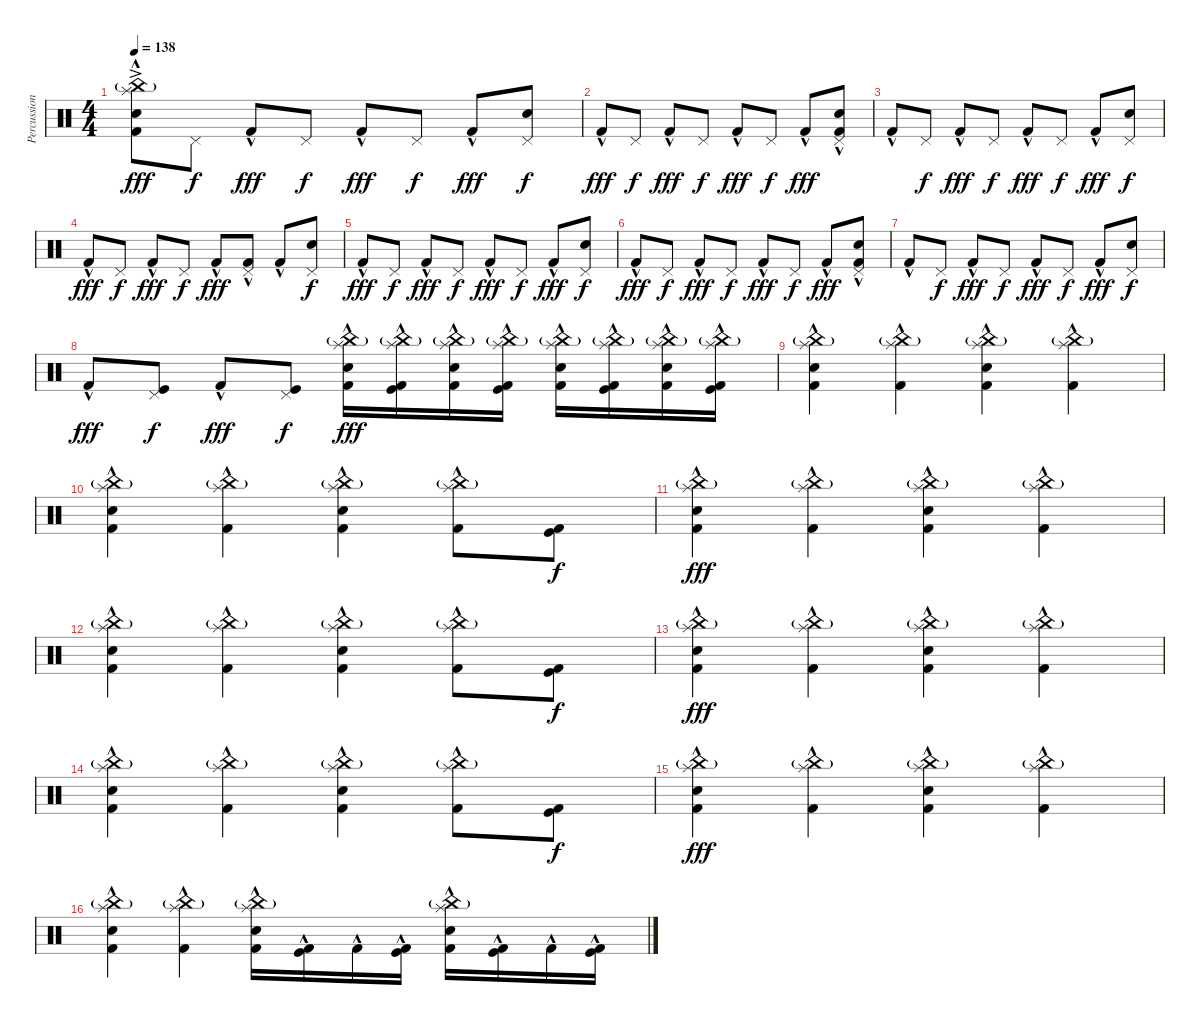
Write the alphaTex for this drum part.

\track ("Percussions" "Percussion") {instrument percussion}
\staff {score}
\articulation defaults
\ts (4 4)
\tempo 138
\clef neutral
\ks c
("Splash (hit)"{ac} "China (hit)"{g} "Snare (hit) 2" "Kick (hit) 2"{hac}).8{dy fff} "Pedal Hi-Hat (hit)".8{dy f} "Kick (hit) 2"{hac}.8{dy fff} "Pedal Hi-Hat (hit)".8{dy f} "Kick (hit) 2"{hac}.8{dy fff} "Pedal Hi-Hat (hit)".8{dy f} "Kick (hit) 2"{hac}.8{dy fff} ("Snare (hit) 2" "Pedal Hi-Hat (hit)").8{dy f} |
"Kick (hit) 2"{hac}.8{dy fff} "Pedal Hi-Hat (hit)".8{dy f} "Kick (hit) 2"{hac}.8{dy fff} "Pedal Hi-Hat (hit)".8{dy f} "Kick (hit) 2"{hac}.8{dy fff} "Pedal Hi-Hat (hit)".8{dy f} "Kick (hit) 2"{hac}.8{dy fff} ("Snare (hit) 2" "Pedal Hi-Hat (hit)" "Kick (hit) 2"{hac}).8 |
"Kick (hit) 2"{hac}.8 "Pedal Hi-Hat (hit)".8{dy f} "Kick (hit) 2"{hac}.8{dy fff} "Pedal Hi-Hat (hit)".8{dy f} "Kick (hit) 2"{hac}.8{dy fff} "Pedal Hi-Hat (hit)".8{dy f} "Kick (hit) 2"{hac}.8{dy fff} ("Snare (hit) 2" "Pedal Hi-Hat (hit)").8{dy f} |
"Kick (hit) 2"{hac}.8{dy fff} "Pedal Hi-Hat (hit)".8{dy f} "Kick (hit) 2"{hac}.8{dy fff} "Pedal Hi-Hat (hit)".8{dy f} "Kick (hit) 2"{hac}.8{dy fff} ("Pedal Hi-Hat (hit)" "Kick (hit) 2"{hac}).8 "Kick (hit) 2"{hac}.8 ("Snare (hit) 2" "Pedal Hi-Hat (hit)").8{dy f} |
"Kick (hit) 2"{hac}.8{dy fff} "Pedal Hi-Hat (hit)".8{dy f} "Kick (hit) 2"{hac}.8{dy fff} "Pedal Hi-Hat (hit)".8{dy f} "Kick (hit) 2"{hac}.8{dy fff} "Pedal Hi-Hat (hit)".8{dy f} "Kick (hit) 2"{hac}.8{dy fff} ("Snare (hit) 2" "Pedal Hi-Hat (hit)").8{dy f} |
"Kick (hit) 2"{hac}.8{dy fff} "Pedal Hi-Hat (hit)".8{dy f} "Kick (hit) 2"{hac}.8{dy fff} "Pedal Hi-Hat (hit)".8{dy f} "Kick (hit) 2"{hac}.8{dy fff} "Pedal Hi-Hat (hit)".8{dy f} "Kick (hit) 2"{hac}.8{dy fff} ("Snare (hit) 2" "Pedal Hi-Hat (hit)" "Kick (hit) 2"{hac}).8 |
"Kick (hit) 2"{hac}.8 "Pedal Hi-Hat (hit)".8{dy f} "Kick (hit) 2"{hac}.8{dy fff} "Pedal Hi-Hat (hit)".8{dy f} "Kick (hit) 2"{hac}.8{dy fff} "Pedal Hi-Hat (hit)".8{dy f} "Kick (hit) 2"{hac}.8{dy fff} ("Snare (hit) 2" "Pedal Hi-Hat (hit)").8{dy f} |
"Kick (hit) 2"{hac}.8{dy fff} ("Pedal Hi-Hat (hit)" "Kick (hit)").8{dy f} "Kick (hit) 2"{hac}.8{dy fff} ("Pedal Hi-Hat (hit)" "Kick (hit)").8{dy f} ("Splash (hit)" "China (hit)"{g} "Snare (hit) 2" "Kick (hit) 2"{hac}).16{dy fff} ("Splash (hit)" "China (hit)"{g} "Kick (hit)" "Kick (hit) 2"{hac}).16 ("Splash (hit)" "China (hit)"{g} "Snare (hit) 2" "Kick (hit) 2"{hac}).16 ("Splash (hit)" "China (hit)"{g} "Kick (hit)" "Kick (hit) 2"{hac}).16 ("Splash (hit)" "China (hit)"{g} "Snare (hit) 2" "Kick (hit) 2"{hac}).16 ("Splash (hit)" "China (hit)"{g} "Kick (hit)" "Kick (hit) 2"{hac}).16 ("Splash (hit)" "China (hit)"{g} "Snare (hit) 2" "Kick (hit) 2"{hac}).16 ("Splash (hit)" "China (hit)"{g} "Kick (hit)" "Kick (hit) 2"{hac}).16 |
("Splash (hit)" "China (hit)"{g} "Snare (hit) 2" "Kick (hit) 2"{hac}).4 ("Splash (hit)" "China (hit)"{g} "Kick (hit) 2"{hac}).4 ("Splash (hit)" "China (hit)"{g} "Snare (hit) 2" "Kick (hit) 2"{hac}).4 ("Splash (hit)" "China (hit)"{g} "Kick (hit) 2"{hac}).4 |
("Splash (hit)" "China (hit)"{g} "Snare (hit) 2" "Kick (hit) 2"{hac}).4 ("Splash (hit)" "China (hit)"{g} "Kick (hit) 2"{hac}).4 ("Splash (hit)" "China (hit)"{g} "Snare (hit) 2" "Kick (hit) 2"{hac}).4 ("Splash (hit)" "China (hit)"{g} "Kick (hit) 2"{hac}).8 ("Kick (hit)" "Kick (hit) 2").8{dy f} |
("Splash (hit)" "China (hit)"{g} "Snare (hit) 2" "Kick (hit) 2"{hac}).4{dy fff} ("Splash (hit)" "China (hit)"{g} "Kick (hit) 2"{hac}).4 ("Splash (hit)" "China (hit)"{g} "Snare (hit) 2" "Kick (hit) 2"{hac}).4 ("Splash (hit)" "China (hit)"{g} "Kick (hit) 2"{hac}).4 |
("Splash (hit)" "China (hit)"{g} "Snare (hit) 2" "Kick (hit) 2"{hac}).4 ("Splash (hit)" "China (hit)"{g} "Kick (hit) 2"{hac}).4 ("Splash (hit)" "China (hit)"{g} "Snare (hit) 2" "Kick (hit) 2"{hac}).4 ("Splash (hit)" "China (hit)"{g} "Kick (hit) 2"{hac}).8 ("Kick (hit)" "Kick (hit) 2").8{dy f} |
("Splash (hit)" "China (hit)"{g} "Snare (hit) 2" "Kick (hit) 2"{hac}).4{dy fff} ("Splash (hit)" "China (hit)"{g} "Kick (hit) 2"{hac}).4 ("Splash (hit)" "China (hit)"{g} "Snare (hit) 2" "Kick (hit) 2"{hac}).4 ("Splash (hit)" "China (hit)"{g} "Kick (hit) 2"{hac}).4 |
("Splash (hit)" "China (hit)"{g} "Snare (hit) 2" "Kick (hit) 2"{hac}).4 ("Splash (hit)" "China (hit)"{g} "Kick (hit) 2"{hac}).4 ("Splash (hit)" "China (hit)"{g} "Snare (hit) 2" "Kick (hit) 2"{hac}).4 ("Splash (hit)" "China (hit)"{g} "Kick (hit) 2"{hac}).8 ("Kick (hit)" "Kick (hit) 2").8{dy f} |
("Splash (hit)" "China (hit)"{g} "Snare (hit) 2" "Kick (hit) 2"{hac}).4{dy fff} ("Splash (hit)" "China (hit)"{g} "Kick (hit) 2"{hac}).4 ("Splash (hit)" "China (hit)"{g} "Snare (hit) 2" "Kick (hit) 2"{hac}).4 ("Splash (hit)" "China (hit)"{g} "Kick (hit) 2"{hac}).4 |
("Splash (hit)" "China (hit)"{g} "Snare (hit) 2" "Kick (hit) 2"{hac}).4 ("Splash (hit)" "China (hit)"{g} "Kick (hit) 2"{hac}).4 ("Splash (hit)" "China (hit)"{g} "Snare (hit) 2" "Kick (hit) 2"{hac}).16 ("Kick (hit)" "Kick (hit) 2"{hac}).16 "Kick (hit) 2"{hac}.16 ("Kick (hit)" "Kick (hit) 2"{hac}).16 ("Splash (hit)" "China (hit)"{g} "Snare (hit) 2" "Kick (hit) 2"{hac}).16 ("Kick (hit)" "Kick (hit) 2"{hac}).16 "Kick (hit) 2"{hac}.16 ("Kick (hit)" "Kick (hit) 2"{hac}).16
